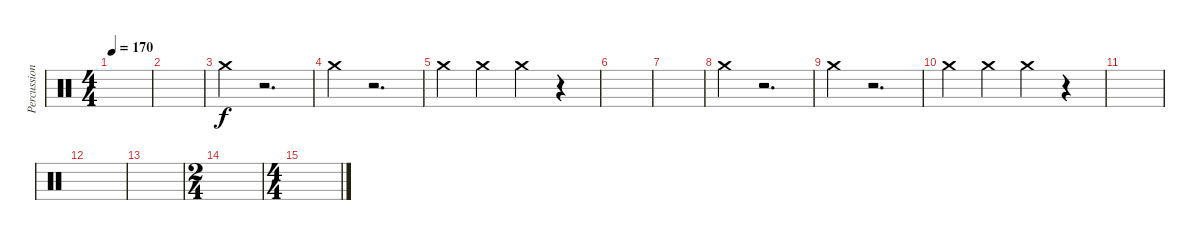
\track ("Percussion" "Percussion") {instrument percussion}
\staff {score}
\articulation defaults
\ts (4 4)
\tempo 170
\clef neutral
\ks c
|
|
"Crash medium (hit)".4 r.2{d} |
"Crash medium (hit)".4 r.2{d} |
"Crash medium (hit)".4 "Crash medium (hit)".4 "Crash medium (hit)".4 r.4 |
|
|
"Crash medium (hit)".4 r.2{d} |
"Crash medium (hit)".4 r.2{d} |
"Crash medium (hit)".4 "Crash medium (hit)".4 "Crash medium (hit)".4 r.4 |
|
|
|
\ts (2 4)
|
\ts (4 4)
